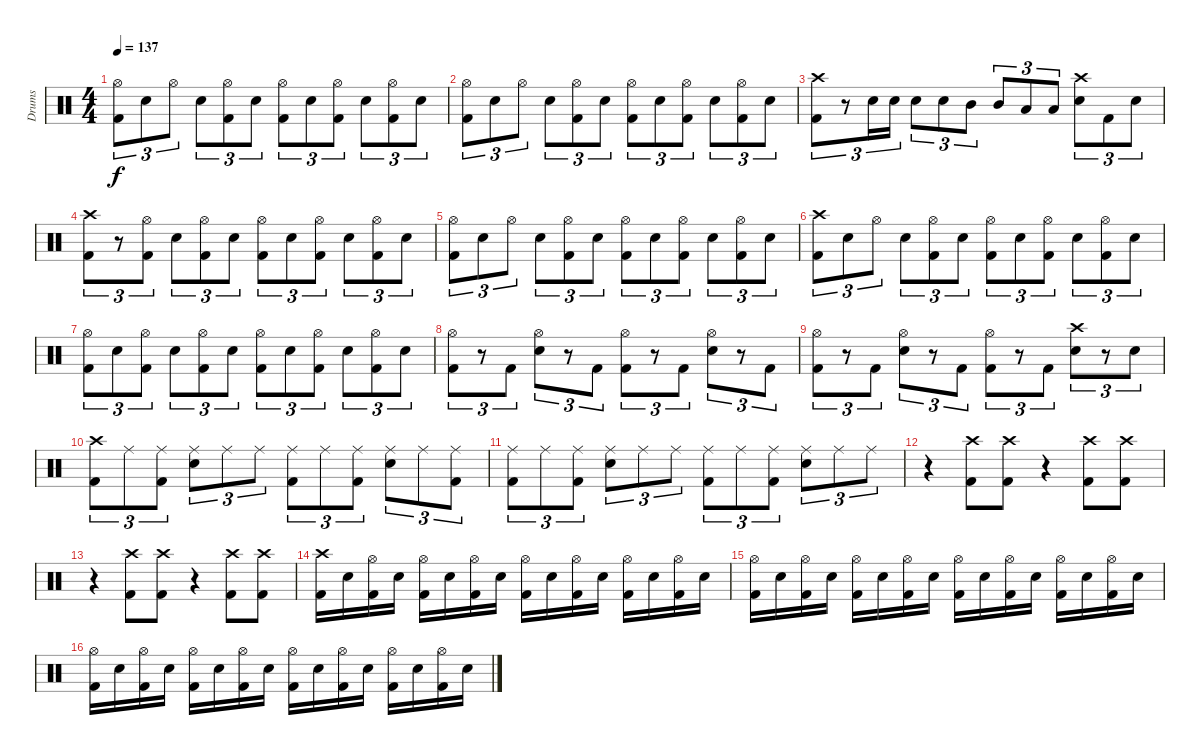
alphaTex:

\track ("Drums" "Drums") {instrument percussion}
\staff {score}
\articulation defaults
\ts (4 4)
\tempo 137
\clef neutral
\ks c
("Hi-Hat (open)" "Kick (hit) 2").8{tu (3 2) dy f} "Electric Snare (hit)".8{tu (3 2)} "Hi-Hat (open)".8{tu (3 2)} "Electric Snare (hit)".8{tu (3 2)} ("Hi-Hat (open)" "Kick (hit) 2").8{tu (3 2)} "Electric Snare (hit)".8{tu (3 2)} ("Hi-Hat (open)" "Kick (hit) 2").8{tu (3 2)} "Electric Snare (hit)".8{tu (3 2)} ("Hi-Hat (open)" "Kick (hit) 2").8{tu (3 2)} "Electric Snare (hit)".8{tu (3 2)} ("Hi-Hat (open)" "Kick (hit) 2").8{tu (3 2)} "Electric Snare (hit)".8{tu (3 2)} |
("Hi-Hat (open)" "Kick (hit) 2").8{tu (3 2)} "Electric Snare (hit)".8{tu (3 2)} "Hi-Hat (open)".8{tu (3 2)} "Electric Snare (hit)".8{tu (3 2)} ("Hi-Hat (open)" "Kick (hit) 2").8{tu (3 2)} "Electric Snare (hit)".8{tu (3 2)} ("Hi-Hat (open)" "Kick (hit) 2").8{tu (3 2)} "Electric Snare (hit)".8{tu (3 2)} ("Hi-Hat (open)" "Kick (hit) 2").8{tu (3 2)} "Electric Snare (hit)".8{tu (3 2)} ("Hi-Hat (open)" "Kick (hit) 2").8{tu (3 2)} "Electric Snare (hit)".8{tu (3 2)} |
("Crash high (hit)" "Kick (hit) 2").8{tu (3 2)} r.8{tu (3 2)} "Electric Snare (hit)".16{tu (3 2)} "Electric Snare (hit)".16{tu (3 2)} "Electric Snare (hit)".8{tu (3 2)} "Electric Snare (hit)".8{tu (3 2)} "Mid Tom (hit)".8{tu (3 2)} "Mid Tom (hit)".8{tu (3 2)} "Low Tom (hit)".8{tu (3 2)} "Low Tom (hit)".8{tu (3 2)} ("Crash high (hit)" "Electric Snare (hit)").8{tu (3 2)} "Kick (hit) 2".8{tu (3 2)} "Electric Snare (hit)".8{tu (3 2)} |
("Crash high (hit)" "Kick (hit) 2").8{tu (3 2)} r.8{tu (3 2)} ("Hi-Hat (open)" "Kick (hit) 2").8{tu (3 2)} "Electric Snare (hit)".8{tu (3 2)} ("Hi-Hat (open)" "Kick (hit) 2").8{tu (3 2)} "Electric Snare (hit)".8{tu (3 2)} ("Hi-Hat (open)" "Kick (hit) 2").8{tu (3 2)} "Electric Snare (hit)".8{tu (3 2)} ("Hi-Hat (open)" "Kick (hit) 2").8{tu (3 2)} "Electric Snare (hit)".8{tu (3 2)} ("Hi-Hat (open)" "Kick (hit) 2").8{tu (3 2)} "Electric Snare (hit)".8{tu (3 2)} |
("Hi-Hat (open)" "Kick (hit) 2").8{tu (3 2)} "Electric Snare (hit)".8{tu (3 2)} "Hi-Hat (open)".8{tu (3 2)} "Electric Snare (hit)".8{tu (3 2)} ("Hi-Hat (open)" "Kick (hit) 2").8{tu (3 2)} "Electric Snare (hit)".8{tu (3 2)} ("Hi-Hat (open)" "Kick (hit) 2").8{tu (3 2)} "Electric Snare (hit)".8{tu (3 2)} ("Hi-Hat (open)" "Kick (hit) 2").8{tu (3 2)} "Electric Snare (hit)".8{tu (3 2)} ("Hi-Hat (open)" "Kick (hit) 2").8{tu (3 2)} "Electric Snare (hit)".8{tu (3 2)} |
("Crash high (hit)" "Kick (hit) 2").8{tu (3 2)} "Electric Snare (hit)".8{tu (3 2)} "Hi-Hat (open)".8{tu (3 2)} "Electric Snare (hit)".8{tu (3 2)} ("Hi-Hat (open)" "Kick (hit) 2").8{tu (3 2)} "Electric Snare (hit)".8{tu (3 2)} ("Hi-Hat (open)" "Kick (hit) 2").8{tu (3 2)} "Electric Snare (hit)".8{tu (3 2)} ("Hi-Hat (open)" "Kick (hit) 2").8{tu (3 2)} "Electric Snare (hit)".8{tu (3 2)} ("Hi-Hat (open)" "Kick (hit) 2").8{tu (3 2)} "Electric Snare (hit)".8{tu (3 2)} |
("Hi-Hat (open)" "Kick (hit) 2").8{tu (3 2)} "Electric Snare (hit)".8{tu (3 2)} ("Hi-Hat (open)" "Kick (hit) 2").8{tu (3 2)} "Electric Snare (hit)".8{tu (3 2)} ("Hi-Hat (open)" "Kick (hit) 2").8{tu (3 2)} "Electric Snare (hit)".8{tu (3 2)} ("Hi-Hat (open)" "Kick (hit) 2").8{tu (3 2)} "Electric Snare (hit)".8{tu (3 2)} ("Hi-Hat (open)" "Kick (hit) 2").8{tu (3 2)} "Electric Snare (hit)".8{tu (3 2)} ("Hi-Hat (open)" "Kick (hit) 2").8{tu (3 2)} "Electric Snare (hit)".8{tu (3 2)} |
("Hi-Hat (open)" "Kick (hit) 2").8{tu (3 2)} r.8{tu (3 2)} "Kick (hit) 2".8{tu (3 2)} ("Hi-Hat (open)" "Electric Snare (hit)").8{tu (3 2)} r.8{tu (3 2)} "Kick (hit) 2".8{tu (3 2)} ("Hi-Hat (open)" "Kick (hit) 2").8{tu (3 2)} r.8{tu (3 2)} "Kick (hit) 2".8{tu (3 2)} ("Hi-Hat (open)" "Electric Snare (hit)").8{tu (3 2)} r.8{tu (3 2)} "Kick (hit) 2".8{tu (3 2)} |
("Hi-Hat (open)" "Kick (hit) 2").8{tu (3 2)} r.8{tu (3 2)} "Kick (hit) 2".8{tu (3 2)} ("Hi-Hat (open)" "Electric Snare (hit)").8{tu (3 2)} r.8{tu (3 2)} "Kick (hit) 2".8{tu (3 2)} ("Hi-Hat (open)" "Kick (hit) 2").8{tu (3 2)} r.8{tu (3 2)} "Kick (hit) 2".8{tu (3 2)} ("Crash high (hit)" "Electric Snare (hit)").8{tu (3 2)} r.8{tu (3 2)} "Electric Snare (hit)".8{tu (3 2)} |
("Crash high (hit)" "Kick (hit) 2").8{tu (3 2)} "Ride (middle)".8{tu (3 2)} ("Ride (middle)" "Kick (hit) 2").8{tu (3 2)} ("Ride (middle)" "Electric Snare (hit)").8{tu (3 2)} "Ride (middle)".8{tu (3 2)} "Ride (middle)".8{tu (3 2)} ("Ride (middle)" "Kick (hit) 2").8{tu (3 2)} "Ride (middle)".8{tu (3 2)} ("Ride (middle)" "Kick (hit) 2").8{tu (3 2)} ("Ride (middle)" "Electric Snare (hit)").8{tu (3 2)} "Ride (middle)".8{tu (3 2)} ("Ride (middle)" "Kick (hit) 2").8{tu (3 2)} |
("Ride (middle)" "Kick (hit) 2").8{tu (3 2)} "Ride (middle)".8{tu (3 2)} ("Ride (middle)" "Kick (hit) 2").8{tu (3 2)} ("Ride (middle)" "Electric Snare (hit)").8{tu (3 2)} "Ride (middle)".8{tu (3 2)} "Ride (middle)".8{tu (3 2)} ("Ride (middle)" "Kick (hit) 2").8{tu (3 2)} "Ride (middle)".8{tu (3 2)} ("Ride (middle)" "Kick (hit) 2").8{tu (3 2)} ("Ride (middle)" "Electric Snare (hit)").8{tu (3 2)} "Ride (middle)".8{tu (3 2)} "Ride (middle)".8{tu (3 2)} |
r.4 ("Crash high (hit)" "Kick (hit) 2").8 ("Crash high (hit)" "Kick (hit) 2").8 r.4 ("Crash high (hit)" "Kick (hit) 2").8 ("Crash high (hit)" "Kick (hit) 2").8 |
r.4 ("Crash high (hit)" "Kick (hit) 2").8 ("Crash high (hit)" "Kick (hit) 2").8 r.4 ("Crash high (hit)" "Kick (hit) 2").8 ("Crash high (hit)" "Kick (hit) 2").8 |
("Crash high (hit)" "Kick (hit) 2").16 "Electric Snare (hit)".16 ("Hi-Hat (open)" "Kick (hit) 2").16 "Electric Snare (hit)".16 ("Hi-Hat (open)" "Kick (hit) 2").16 "Electric Snare (hit)".16 ("Hi-Hat (open)" "Kick (hit) 2").16 "Electric Snare (hit)".16 ("Hi-Hat (open)" "Kick (hit) 2").16 "Electric Snare (hit)".16 ("Hi-Hat (open)" "Kick (hit) 2").16 "Electric Snare (hit)".16 ("Hi-Hat (open)" "Kick (hit) 2").16 "Electric Snare (hit)".16 ("Hi-Hat (open)" "Kick (hit) 2").16 "Electric Snare (hit)".16 |
("Hi-Hat (open)" "Kick (hit) 2").16 "Electric Snare (hit)".16 ("Hi-Hat (open)" "Kick (hit) 2").16 "Electric Snare (hit)".16 ("Hi-Hat (open)" "Kick (hit) 2").16 "Electric Snare (hit)".16 ("Hi-Hat (open)" "Kick (hit) 2").16 "Electric Snare (hit)".16 ("Hi-Hat (open)" "Kick (hit) 2").16 "Electric Snare (hit)".16 ("Hi-Hat (open)" "Kick (hit) 2").16 "Electric Snare (hit)".16 ("Hi-Hat (open)" "Kick (hit) 2").16 "Electric Snare (hit)".16 ("Hi-Hat (open)" "Kick (hit) 2").16 "Electric Snare (hit)".16 |
("Hi-Hat (open)" "Kick (hit) 2").16 "Electric Snare (hit)".16 ("Hi-Hat (open)" "Kick (hit) 2").16 "Electric Snare (hit)".16 ("Hi-Hat (open)" "Kick (hit) 2").16 "Electric Snare (hit)".16 ("Hi-Hat (open)" "Kick (hit) 2").16 "Electric Snare (hit)".16 ("Hi-Hat (open)" "Kick (hit) 2").16 "Electric Snare (hit)".16 ("Hi-Hat (open)" "Kick (hit) 2").16 "Electric Snare (hit)".16 ("Hi-Hat (open)" "Kick (hit) 2").16 "Electric Snare (hit)".16 ("Hi-Hat (open)" "Kick (hit) 2").16 "Electric Snare (hit)".16
